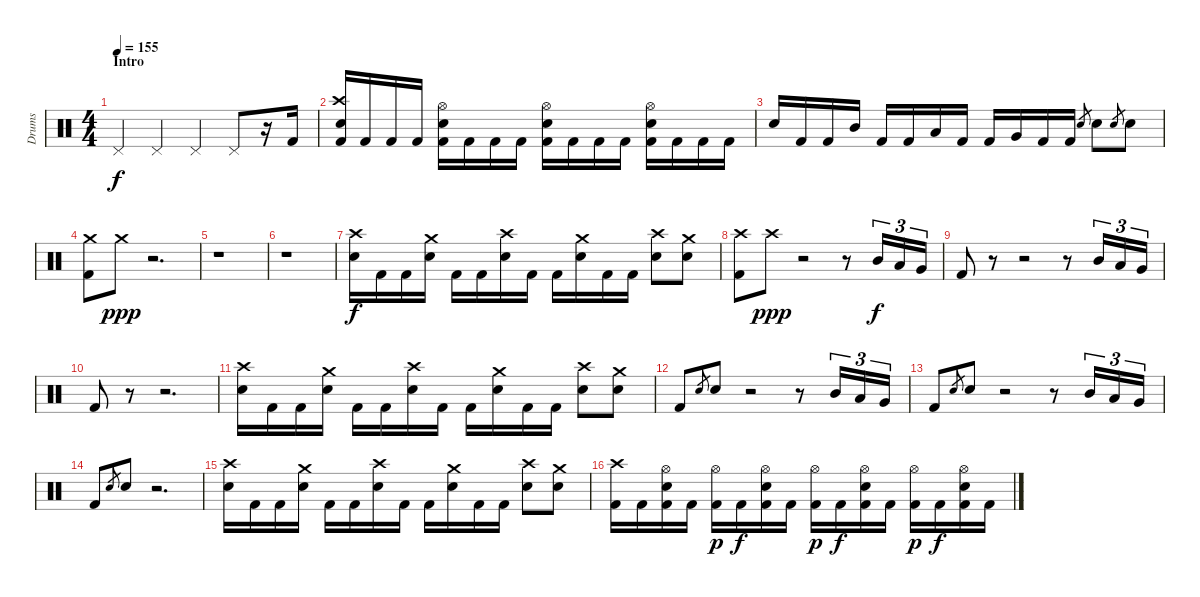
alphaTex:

\track ("Drums" "Drums") {instrument percussion}
\staff {score}
\articulation defaults
\ts (4 4)
\section ("" "Intro")
\tempo 155
\clef neutral
\ks c "Pedal Hi-Hat (hit)".4{dy f} "Pedal Hi-Hat (hit)".4 "Pedal Hi-Hat (hit)".4 "Pedal Hi-Hat (hit)".8
r.16 "Kick (hit) 2".16 |
("Crash high (hit)" "Snare (hit) 2" "Kick (hit) 2").16 "Kick (hit) 2".16 "Kick (hit) 2".16 "Kick (hit) 2".16 ("Hi-Hat (open)" "Snare (hit) 2" "Kick (hit) 2").16 "Kick (hit) 2".16 "Kick (hit) 2".16 "Kick (hit) 2".16 ("Hi-Hat (open)" "Snare (hit) 2" "Kick (hit) 2").16 "Kick (hit) 2".16 "Kick (hit) 2".16 "Kick (hit) 2".16 ("Hi-Hat (open)" "Snare (hit) 2" "Kick (hit) 2").16 "Kick (hit) 2".16 "Kick (hit) 2".16 "Kick (hit) 2".16 |
"Snare (hit) 2".16 "Kick (hit) 2".16 "Kick (hit) 2".16 "Mid Tom (hit)".16 "Kick (hit) 2".16 "Kick (hit) 2".16 "Low Tom (hit)".16 "Kick (hit) 2".16 "Kick (hit) 2".16 "Very Low Tom (hit)".16 "Kick (hit) 2".16 "Kick (hit) 2".16 "Snare (hit) 2".8{gr} "Snare (hit) 2".8 "Snare (hit) 2".8{gr} "Snare (hit) 2".8 |
("Crash medium (hit)" "Kick (hit) 2").8 "Crash medium (hit)".8{dy ppp} r.2{d} |
r.1 |
r.1 |
("Crash high (hit)" "Snare (hit) 2").16{dy f} "Kick (hit) 2".16 "Kick (hit) 2".16 ("Crash medium (hit)" "Snare (hit) 2").16 "Kick (hit) 2".16 "Kick (hit) 2".16 ("Crash high (hit)" "Snare (hit) 2").16 "Kick (hit) 2".16 "Kick (hit) 2".16 ("Crash medium (hit)" "Snare (hit) 2").16 "Kick (hit) 2".16 "Kick (hit) 2".16 ("Crash high (hit)" "Snare (hit) 2").8 ("Crash medium (hit)" "Snare (hit) 2").8 |
("Crash high (hit)" "Kick (hit) 2").8 "Crash high (hit)".8{dy ppp} r.2 r.8 "Mid Tom (hit)".16{tu (3 2) dy f} "Low Tom (hit)".16{tu (3 2)} "Very Low Tom (hit)".16{tu (3 2)} |
"Kick (hit) 2".8 r.8 r.2 r.8 "Mid Tom (hit)".16{tu (3 2)} "Low Tom (hit)".16{tu (3 2)} "Very Low Tom (hit)".16{tu (3 2)} |
"Kick (hit) 2".8 r.8 r.2{d} |
("Crash high (hit)" "Snare (hit) 2").16 "Kick (hit) 2".16 "Kick (hit) 2".16 ("Crash medium (hit)" "Snare (hit) 2").16 "Kick (hit) 2".16 "Kick (hit) 2".16 ("Crash high (hit)" "Snare (hit) 2").16 "Kick (hit) 2".16 "Kick (hit) 2".16 ("Crash medium (hit)" "Snare (hit) 2").16 "Kick (hit) 2".16 "Kick (hit) 2".16 ("Crash high (hit)" "Snare (hit) 2").8 ("Crash medium (hit)" "Snare (hit) 2").8 |
"Kick (hit) 2".8 "Snare (hit) 2".8{gr} "Snare (hit) 2".8 r.2 r.8 "Mid Tom (hit)".16{tu (3 2)} "Low Tom (hit)".16{tu (3 2)} "Very Low Tom (hit)".16{tu (3 2)} |
"Kick (hit) 2".8 "Snare (hit) 2".8{gr} "Snare (hit) 2".8 r.2 r.8 "Mid Tom (hit)".16{tu (3 2)} "Low Tom (hit)".16{tu (3 2)} "Very Low Tom (hit)".16{tu (3 2)} |
"Kick (hit) 2".8 "Snare (hit) 2".8{gr} "Snare (hit) 2".8 r.2{d} |
("Crash high (hit)" "Snare (hit) 2").16 "Kick (hit) 2".16 "Kick (hit) 2".16 ("Crash medium (hit)" "Snare (hit) 2").16 "Kick (hit) 2".16 "Kick (hit) 2".16 ("Crash high (hit)" "Snare (hit) 2").16 "Kick (hit) 2".16 "Kick (hit) 2".16 ("Crash medium (hit)" "Snare (hit) 2").16 "Kick (hit) 2".16 "Kick (hit) 2".16 ("Crash high (hit)" "Snare (hit) 2").8 ("Crash medium (hit)" "Snare (hit) 2").8 |
\section ("" "")
("Crash high (hit)" "Kick (hit) 2").16 "Kick (hit) 2".16 ("Hi-Hat (open)" "Snare (hit) 2" "Kick (hit) 2").16 "Kick (hit) 2".16 ("Hi-Hat (open)" "Kick (hit) 2").16{dy p} "Kick (hit) 2".16{dy f} ("Hi-Hat (open)" "Snare (hit) 2" "Kick (hit) 2").16 "Kick (hit) 2".16 ("Hi-Hat (open)" "Kick (hit) 2").16{dy p} "Kick (hit) 2".16{dy f} ("Hi-Hat (open)" "Snare (hit) 2" "Kick (hit) 2").16 "Kick (hit) 2".16 ("Hi-Hat (open)" "Kick (hit) 2").16{dy p} "Kick (hit) 2".16{dy f} ("Hi-Hat (open)" "Snare (hit) 2" "Kick (hit) 2").16 "Kick (hit) 2".16
